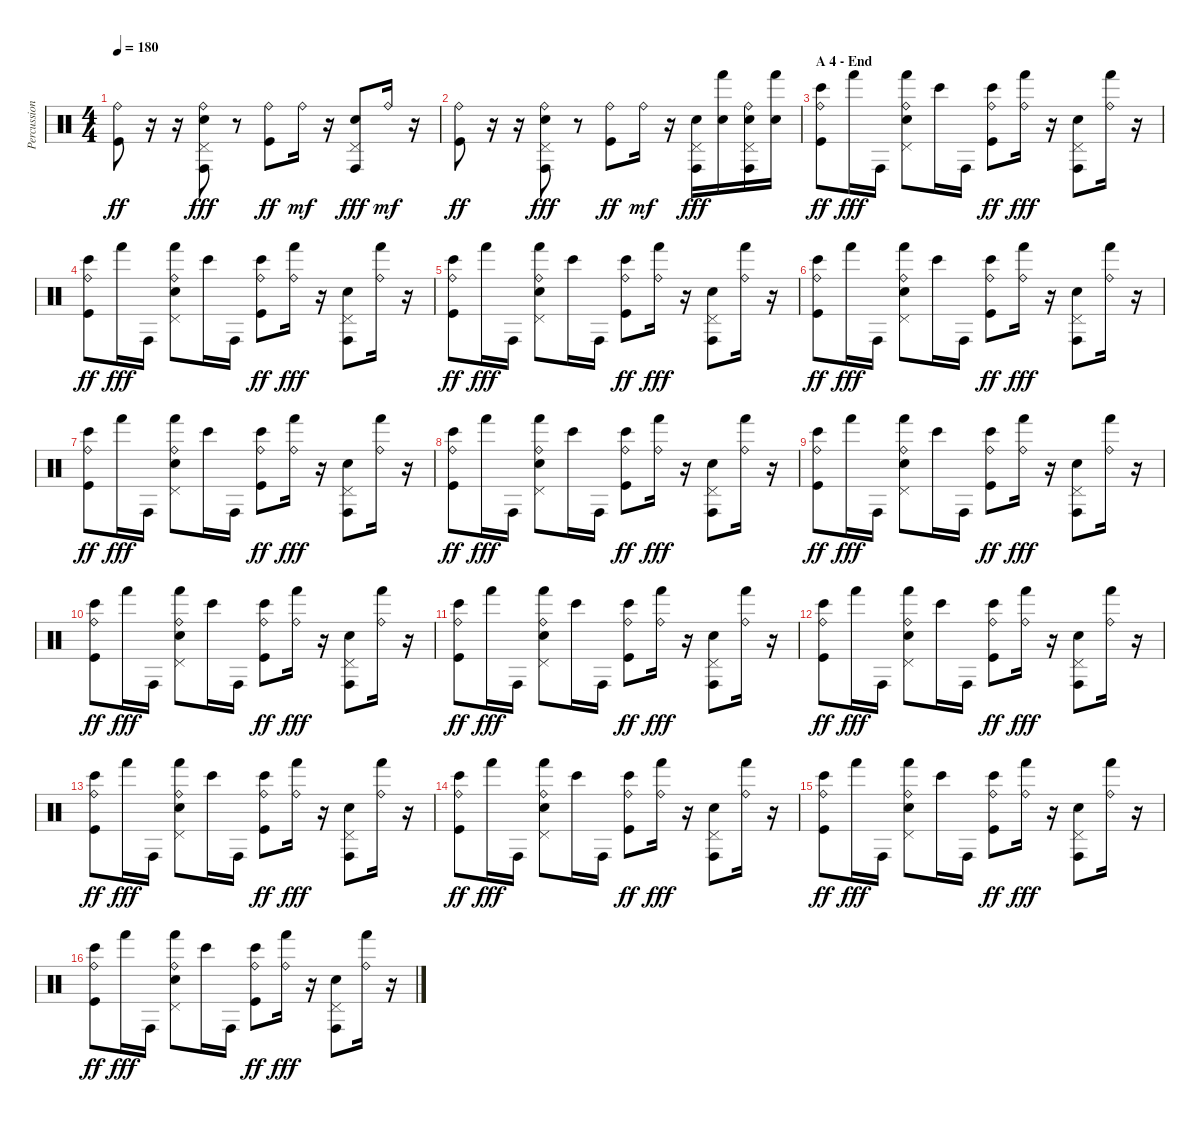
\track ("Percussion" "Percussion") {instrument percussion}
\staff {score}
\articulation defaults
\ts (4 4)
\tempo 180
\clef neutral
\ks c
("Ride (bell)" "Kick (hit)").8{dy ff} r.16 r.16 ("Ride (bell)" "Pedal Hi-Hat (hit)" "Conga high (hit)" "Electric Snare (hit)").8{dy fff} r.8 ("Ride (bell)" "Kick (hit)").8{dy ff} "Ride (bell)".16{dy mf} r.16 ("Pedal Hi-Hat (hit)" "Conga high (hit)" "Electric Snare (hit)").8{dy fff} "Ride (bell)".16{dy mf} r.16 |
("Ride (bell)" "Kick (hit)").8{dy ff} r.16 r.16 ("Ride (bell)" "Pedal Hi-Hat (hit)" "Conga high (hit)" "Electric Snare (hit)").8{dy fff} r.8 ("Ride (bell)" "Kick (hit)").8{dy ff} "Ride (bell)".16{dy mf} r.16 ("Pedal Hi-Hat (hit)" "Conga high (hit)" "Electric Snare (hit)").16{dy fff} ("Hand (hit)" "Electric Snare (hit)").16 ("Ride (bell)" "Pedal Hi-Hat (hit)" "Conga high (hit)" "Electric Snare (hit)").16 ("Hand (hit)" "Electric Snare (hit)").16 |
\section ("" "A 4 - End")
("Ride (bell)" "Bongo High (hit)" "Kick (hit)").8{dy ff} "Hand (hit)".16{dy fff} "Conga high (hit)".16 ("Ride (bell)" "Pedal Hi-Hat (hit)" "Hand (hit)" "Electric Snare (hit)").8 "Bongo High (hit)".16 "Conga high (hit)".16 ("Ride (bell)" "Bongo High (hit)" "Kick (hit)").8{dy ff} ("Ride (bell)" "Hand (hit)").16{dy fff} r.16 ("Pedal Hi-Hat (hit)" "Conga high (hit)" "Electric Snare (hit)").8 ("Ride (bell)" "Hand (hit)").16 r.16 |
("Ride (bell)" "Bongo High (hit)" "Kick (hit)").8{dy ff} "Hand (hit)".16{dy fff} "Conga high (hit)".16 ("Ride (bell)" "Pedal Hi-Hat (hit)" "Hand (hit)" "Electric Snare (hit)").8 "Bongo High (hit)".16 "Conga high (hit)".16 ("Ride (bell)" "Bongo High (hit)" "Kick (hit)").8{dy ff} ("Ride (bell)" "Hand (hit)").16{dy fff} r.16 ("Pedal Hi-Hat (hit)" "Conga high (hit)" "Electric Snare (hit)").8 ("Ride (bell)" "Hand (hit)").16 r.16 |
("Ride (bell)" "Bongo High (hit)" "Kick (hit)").8{dy ff} "Hand (hit)".16{dy fff} "Conga high (hit)".16 ("Ride (bell)" "Pedal Hi-Hat (hit)" "Hand (hit)" "Electric Snare (hit)").8 "Bongo High (hit)".16 "Conga high (hit)".16 ("Ride (bell)" "Bongo High (hit)" "Kick (hit)").8{dy ff} ("Ride (bell)" "Hand (hit)").16{dy fff} r.16 ("Pedal Hi-Hat (hit)" "Conga high (hit)" "Electric Snare (hit)").8 ("Ride (bell)" "Hand (hit)").16 r.16 |
("Ride (bell)" "Bongo High (hit)" "Kick (hit)").8{dy ff} "Hand (hit)".16{dy fff} "Conga high (hit)".16 ("Ride (bell)" "Pedal Hi-Hat (hit)" "Hand (hit)" "Electric Snare (hit)").8 "Bongo High (hit)".16 "Conga high (hit)".16 ("Ride (bell)" "Bongo High (hit)" "Kick (hit)").8{dy ff} ("Ride (bell)" "Hand (hit)").16{dy fff} r.16 ("Pedal Hi-Hat (hit)" "Conga high (hit)" "Electric Snare (hit)").8 ("Ride (bell)" "Hand (hit)").16 r.16 |
("Ride (bell)" "Bongo High (hit)" "Kick (hit)").8{dy ff} "Hand (hit)".16{dy fff} "Conga high (hit)".16 ("Ride (bell)" "Pedal Hi-Hat (hit)" "Hand (hit)" "Electric Snare (hit)").8 "Bongo High (hit)".16 "Conga high (hit)".16 ("Ride (bell)" "Bongo High (hit)" "Kick (hit)").8{dy ff} ("Ride (bell)" "Hand (hit)").16{dy fff} r.16 ("Pedal Hi-Hat (hit)" "Conga high (hit)" "Electric Snare (hit)").8 ("Ride (bell)" "Hand (hit)").16 r.16 |
("Ride (bell)" "Bongo High (hit)" "Kick (hit)").8{dy ff} "Hand (hit)".16{dy fff} "Conga high (hit)".16 ("Ride (bell)" "Pedal Hi-Hat (hit)" "Hand (hit)" "Electric Snare (hit)").8 "Bongo High (hit)".16 "Conga high (hit)".16 ("Ride (bell)" "Bongo High (hit)" "Kick (hit)").8{dy ff} ("Ride (bell)" "Hand (hit)").16{dy fff} r.16 ("Pedal Hi-Hat (hit)" "Conga high (hit)" "Electric Snare (hit)").8 ("Ride (bell)" "Hand (hit)").16 r.16 |
("Ride (bell)" "Bongo High (hit)" "Kick (hit)").8{dy ff} "Hand (hit)".16{dy fff} "Conga high (hit)".16 ("Ride (bell)" "Pedal Hi-Hat (hit)" "Hand (hit)" "Electric Snare (hit)").8 "Bongo High (hit)".16 "Conga high (hit)".16 ("Ride (bell)" "Bongo High (hit)" "Kick (hit)").8{dy ff} ("Ride (bell)" "Hand (hit)").16{dy fff} r.16 ("Pedal Hi-Hat (hit)" "Conga high (hit)" "Electric Snare (hit)").8 ("Ride (bell)" "Hand (hit)").16 r.16 |
("Ride (bell)" "Bongo High (hit)" "Kick (hit)").8{dy ff} "Hand (hit)".16{dy fff} "Conga high (hit)".16 ("Ride (bell)" "Pedal Hi-Hat (hit)" "Hand (hit)" "Electric Snare (hit)").8 "Bongo High (hit)".16 "Conga high (hit)".16 ("Ride (bell)" "Bongo High (hit)" "Kick (hit)").8{dy ff} ("Ride (bell)" "Hand (hit)").16{dy fff} r.16 ("Pedal Hi-Hat (hit)" "Conga high (hit)" "Electric Snare (hit)").8 ("Ride (bell)" "Hand (hit)").16 r.16 |
("Ride (bell)" "Bongo High (hit)" "Kick (hit)").8{dy ff} "Hand (hit)".16{dy fff} "Conga high (hit)".16 ("Ride (bell)" "Pedal Hi-Hat (hit)" "Hand (hit)" "Electric Snare (hit)").8 "Bongo High (hit)".16 "Conga high (hit)".16 ("Ride (bell)" "Bongo High (hit)" "Kick (hit)").8{dy ff} ("Ride (bell)" "Hand (hit)").16{dy fff} r.16 ("Pedal Hi-Hat (hit)" "Conga high (hit)" "Electric Snare (hit)").8 ("Ride (bell)" "Hand (hit)").16 r.16 |
("Ride (bell)" "Bongo High (hit)" "Kick (hit)").8{dy ff} "Hand (hit)".16{dy fff} "Conga high (hit)".16 ("Ride (bell)" "Pedal Hi-Hat (hit)" "Hand (hit)" "Electric Snare (hit)").8 "Bongo High (hit)".16 "Conga high (hit)".16 ("Ride (bell)" "Bongo High (hit)" "Kick (hit)").8{dy ff} ("Ride (bell)" "Hand (hit)").16{dy fff} r.16 ("Pedal Hi-Hat (hit)" "Conga high (hit)" "Electric Snare (hit)").8 ("Ride (bell)" "Hand (hit)").16 r.16 |
("Ride (bell)" "Bongo High (hit)" "Kick (hit)").8{dy ff} "Hand (hit)".16{dy fff} "Conga high (hit)".16 ("Ride (bell)" "Pedal Hi-Hat (hit)" "Hand (hit)" "Electric Snare (hit)").8 "Bongo High (hit)".16 "Conga high (hit)".16 ("Ride (bell)" "Bongo High (hit)" "Kick (hit)").8{dy ff} ("Ride (bell)" "Hand (hit)").16{dy fff} r.16 ("Pedal Hi-Hat (hit)" "Conga high (hit)" "Electric Snare (hit)").8 ("Ride (bell)" "Hand (hit)").16 r.16 |
("Ride (bell)" "Bongo High (hit)" "Kick (hit)").8{dy ff} "Hand (hit)".16{dy fff} "Conga high (hit)".16 ("Ride (bell)" "Pedal Hi-Hat (hit)" "Hand (hit)" "Electric Snare (hit)").8 "Bongo High (hit)".16 "Conga high (hit)".16 ("Ride (bell)" "Bongo High (hit)" "Kick (hit)").8{dy ff} ("Ride (bell)" "Hand (hit)").16{dy fff} r.16 ("Pedal Hi-Hat (hit)" "Conga high (hit)" "Electric Snare (hit)").8 ("Ride (bell)" "Hand (hit)").16 r.16 |
("Ride (bell)" "Bongo High (hit)" "Kick (hit)").8{dy ff} "Hand (hit)".16{dy fff} "Conga high (hit)".16 ("Ride (bell)" "Pedal Hi-Hat (hit)" "Hand (hit)" "Electric Snare (hit)").8 "Bongo High (hit)".16 "Conga high (hit)".16 ("Ride (bell)" "Bongo High (hit)" "Kick (hit)").8{dy ff} ("Ride (bell)" "Hand (hit)").16{dy fff} r.16 ("Pedal Hi-Hat (hit)" "Conga high (hit)" "Electric Snare (hit)").8 ("Ride (bell)" "Hand (hit)").16 r.16 |
("Ride (bell)" "Bongo High (hit)" "Kick (hit)").8{dy ff} "Hand (hit)".16{dy fff} "Conga high (hit)".16 ("Ride (bell)" "Pedal Hi-Hat (hit)" "Hand (hit)" "Electric Snare (hit)").8 "Bongo High (hit)".16 "Conga high (hit)".16 ("Ride (bell)" "Bongo High (hit)" "Kick (hit)").8{dy ff} ("Ride (bell)" "Hand (hit)").16{dy fff} r.16 ("Pedal Hi-Hat (hit)" "Conga high (hit)" "Electric Snare (hit)").8 ("Ride (bell)" "Hand (hit)").16 r.16
